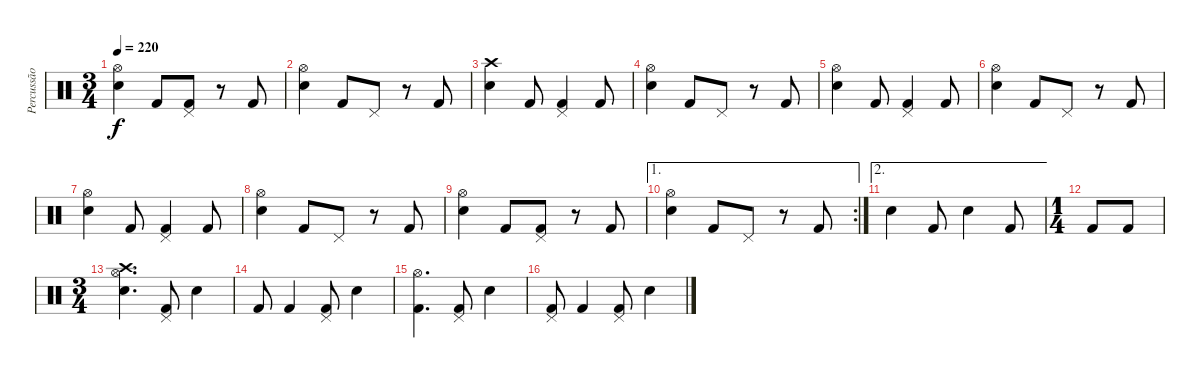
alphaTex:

\track ("Percussão" "Percussão") {instrument percussion}
\staff {score}
\articulation defaults
\ts (3 4)
\tempo 220
\clef neutral
\ks c
("Hi-Hat (open)" "Snare (hit) 2").4{dy f} "Kick (hit) 2".8 ("Pedal Hi-Hat (hit)" "Kick (hit) 2").8 r.8 "Kick (hit) 2".8 |
("Hi-Hat (open)" "Snare (hit) 2").4 "Kick (hit) 2".8 "Pedal Hi-Hat (hit)".8 r.8 "Kick (hit) 2".8 |
("Crash high (hit)" "Snare (hit) 2").4 "Kick (hit) 2".8 ("Pedal Hi-Hat (hit)" "Kick (hit) 2").4 "Kick (hit) 2".8 |
("Hi-Hat (open)" "Snare (hit) 2").4 "Kick (hit) 2".8 "Pedal Hi-Hat (hit)".8 r.8 "Kick (hit) 2".8 |
("Hi-Hat (open)" "Snare (hit) 2").4 "Kick (hit) 2".8 ("Pedal Hi-Hat (hit)" "Kick (hit) 2").4 "Kick (hit) 2".8 |
("Hi-Hat (open)" "Snare (hit) 2").4 "Kick (hit) 2".8 "Pedal Hi-Hat (hit)".8 r.8 "Kick (hit) 2".8 |
("Hi-Hat (open)" "Snare (hit) 2").4 "Kick (hit) 2".8 ("Pedal Hi-Hat (hit)" "Kick (hit) 2").4 "Kick (hit) 2".8 |
("Hi-Hat (open)" "Snare (hit) 2").4 "Kick (hit) 2".8 "Pedal Hi-Hat (hit)".8 r.8 "Kick (hit) 2".8 |
("Hi-Hat (open)" "Snare (hit) 2").4 "Kick (hit) 2".8 ("Pedal Hi-Hat (hit)" "Kick (hit) 2").8 r.8 "Kick (hit) 2".8 |
\ae 1
\rc 2
("Hi-Hat (open)" "Snare (hit) 2").4 "Kick (hit) 2".8 "Pedal Hi-Hat (hit)".8 r.8 "Kick (hit) 2".8 |
\ae 2 "Snare (hit) 2".4 "Kick (hit) 2".8 "Snare (hit) 2".4 "Kick (hit) 2".8
|
\ts (1 4)
"Kick (hit) 2".8 "Kick (hit) 2".8 |
\ts (3 4)
("Hi-Hat (open)" "Snare (hit) 2" "Crash high (hit)").4{d} ("Pedal Hi-Hat (hit)" "Kick (hit) 2").8 "Snare (hit) 2".4 |
"Kick (hit) 2".8 "Kick (hit) 2".4 ("Pedal Hi-Hat (hit)" "Kick (hit) 2").8 "Snare (hit) 2".4 |
("Hi-Hat (open)" "Kick (hit) 2").4{d} ("Pedal Hi-Hat (hit)" "Kick (hit) 2").8 "Snare (hit) 2".4 |
("Pedal Hi-Hat (hit)" "Kick (hit) 2").8 "Kick (hit) 2".4 ("Pedal Hi-Hat (hit)" "Kick (hit) 2").8 "Snare (hit) 2".4
